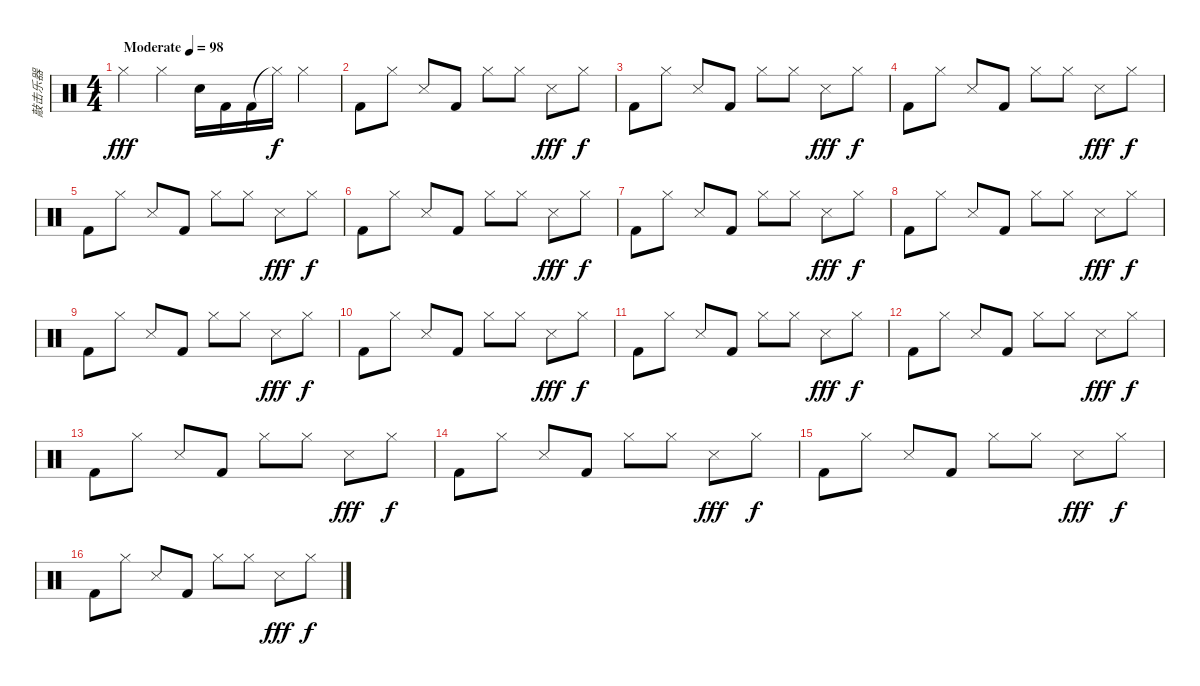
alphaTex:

\track ("敲击乐器" "敲击乐器") {instrument percussion}
\staff {score}
\articulation defaults
\ts (4 4)
\tempo (98 "Moderate")
\clef neutral
\ks c "Hi-Hat (closed)".4{dy fff} "Hi-Hat (closed)".4 "Electric Snare (hit)".16 "Kick (hit) 2".16 "Kick (hit) 2".16 "Hi-Hat (closed)"{t}.16{dy f} "Hi-Hat (closed)".4
|
"Kick (hit) 2".8 "Hi-Hat (closed)".8 "Snare (side stick) 3".8 "Kick (hit) 2".8 "Hi-Hat (closed)".8 "Hi-Hat (closed)".8 "Snare (side stick) 3".8{dy fff} "Hi-Hat (closed)".8{dy f} |
"Kick (hit) 2".8 "Hi-Hat (closed)".8 "Snare (side stick) 3".8 "Kick (hit) 2".8 "Hi-Hat (closed)".8 "Hi-Hat (closed)".8 "Snare (side stick) 3".8{dy fff} "Hi-Hat (closed)".8{dy f} |
"Kick (hit) 2".8 "Hi-Hat (closed)".8 "Snare (side stick) 3".8 "Kick (hit) 2".8 "Hi-Hat (closed)".8 "Hi-Hat (closed)".8 "Snare (side stick) 3".8{dy fff} "Hi-Hat (closed)".8{dy f} |
"Kick (hit) 2".8 "Hi-Hat (closed)".8 "Snare (side stick) 3".8 "Kick (hit) 2".8 "Hi-Hat (closed)".8 "Hi-Hat (closed)".8 "Snare (side stick) 3".8{dy fff} "Hi-Hat (closed)".8{dy f} |
"Kick (hit) 2".8 "Hi-Hat (closed)".8 "Snare (side stick) 3".8 "Kick (hit) 2".8 "Hi-Hat (closed)".8 "Hi-Hat (closed)".8 "Snare (side stick) 3".8{dy fff} "Hi-Hat (closed)".8{dy f} |
"Kick (hit) 2".8 "Hi-Hat (closed)".8 "Snare (side stick) 3".8 "Kick (hit) 2".8 "Hi-Hat (closed)".8 "Hi-Hat (closed)".8 "Snare (side stick) 3".8{dy fff} "Hi-Hat (closed)".8{dy f} |
"Kick (hit) 2".8 "Hi-Hat (closed)".8 "Snare (side stick) 3".8 "Kick (hit) 2".8 "Hi-Hat (closed)".8 "Hi-Hat (closed)".8 "Snare (side stick) 3".8{dy fff} "Hi-Hat (closed)".8{dy f} |
"Kick (hit) 2".8 "Hi-Hat (closed)".8 "Snare (side stick) 3".8 "Kick (hit) 2".8 "Hi-Hat (closed)".8 "Hi-Hat (closed)".8 "Snare (side stick) 3".8{dy fff} "Hi-Hat (closed)".8{dy f} |
"Kick (hit) 2".8 "Hi-Hat (closed)".8 "Snare (side stick) 3".8 "Kick (hit) 2".8 "Hi-Hat (closed)".8 "Hi-Hat (closed)".8 "Snare (side stick) 3".8{dy fff} "Hi-Hat (closed)".8{dy f} |
"Kick (hit) 2".8 "Hi-Hat (closed)".8 "Snare (side stick) 3".8 "Kick (hit) 2".8 "Hi-Hat (closed)".8 "Hi-Hat (closed)".8 "Snare (side stick) 3".8{dy fff} "Hi-Hat (closed)".8{dy f} |
"Kick (hit) 2".8 "Hi-Hat (closed)".8 "Snare (side stick) 3".8 "Kick (hit) 2".8 "Hi-Hat (closed)".8 "Hi-Hat (closed)".8 "Snare (side stick) 3".8{dy fff} "Hi-Hat (closed)".8{dy f} |
"Kick (hit) 2".8 "Hi-Hat (closed)".8 "Snare (side stick) 3".8 "Kick (hit) 2".8 "Hi-Hat (closed)".8 "Hi-Hat (closed)".8 "Snare (side stick) 3".8{dy fff} "Hi-Hat (closed)".8{dy f} |
"Kick (hit) 2".8 "Hi-Hat (closed)".8 "Snare (side stick) 3".8 "Kick (hit) 2".8 "Hi-Hat (closed)".8 "Hi-Hat (closed)".8 "Snare (side stick) 3".8{dy fff} "Hi-Hat (closed)".8{dy f} |
"Kick (hit) 2".8 "Hi-Hat (closed)".8 "Snare (side stick) 3".8 "Kick (hit) 2".8 "Hi-Hat (closed)".8 "Hi-Hat (closed)".8 "Snare (side stick) 3".8{dy fff} "Hi-Hat (closed)".8{dy f} |
"Kick (hit) 2".8 "Hi-Hat (closed)".8 "Snare (side stick) 3".8 "Kick (hit) 2".8 "Hi-Hat (closed)".8 "Hi-Hat (closed)".8 "Snare (side stick) 3".8{dy fff} "Hi-Hat (closed)".8{dy f}
